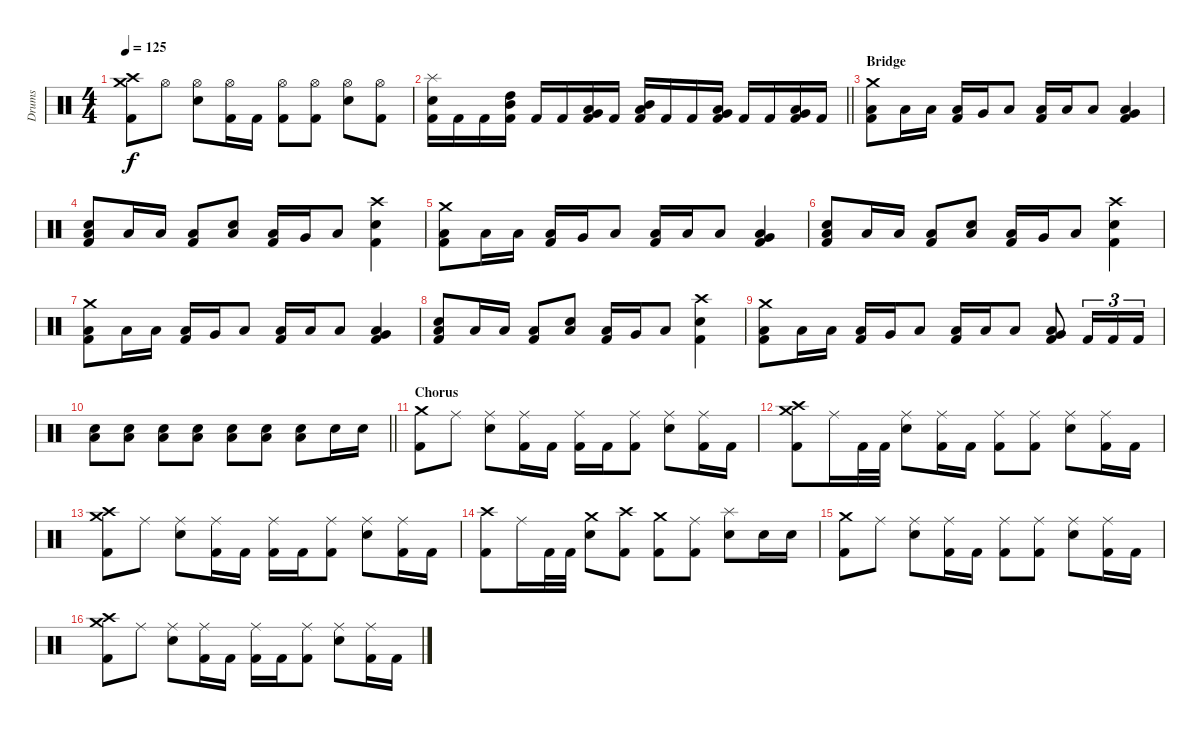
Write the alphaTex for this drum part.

\track ("Drums" "Drums") {instrument percussion}
\staff {score}
\articulation defaults
\ts (4 4)
\tempo 125
\clef neutral
\ks c
("Crash medium (hit)" "Crash high (hit)" "Kick (hit) 2").8{dy f} "Hi-Hat (open)".8 ("Hi-Hat (open)" "Electric Snare (hit)").8 ("Hi-Hat (open)" "Kick (hit) 2").16 "Kick (hit) 2".16 ("Hi-Hat (open)" "Kick (hit) 2").8 ("Hi-Hat (open)" "Kick (hit) 2").8 ("Hi-Hat (open)" "Electric Snare (hit)").8 ("Hi-Hat (open)" "Kick (hit) 2").8 |
\barLineRight lightlight
("Splash (hit)" "Electric Snare (hit)" "Kick (hit) 2").16 "Kick (hit) 2".16 "Kick (hit) 2".16 ("High Tom (hit)" "Mid Tom (hit)" "Kick (hit) 2").16 "Kick (hit) 2".16 "Kick (hit) 2".16 ("Low Tom (hit)" "Very Low Tom (hit)" "Kick (hit) 2").16 "Kick (hit) 2".16 ("Mid Tom (hit)" "Low Tom (hit)" "Kick (hit) 2").16 "Kick (hit) 2".16 "Kick (hit) 2".16 ("Low Tom (hit)" "Very Low Tom (hit)" "Kick (hit) 2").16 "Kick (hit) 2".16 "Kick (hit) 2".16 ("Very Low Tom (hit)" "Low Floor Tom (hit)" "Kick (hit) 2").16 "Kick (hit) 2".16 |
\section ("" "Bridge")
("Crash medium (hit)" "Low Floor Tom (hit)" "Kick (hit) 2").8{volume 14} "Low Floor Tom (hit)".16 "Low Tom (hit)".16 ("Low Floor Tom (hit)" "Kick (hit) 2").16 "Very Low Tom (hit)".16 "Low Floor Tom (hit)".8 ("Low Floor Tom (hit)" "Kick (hit) 2").16 "Low Tom (hit)".16 "Low Floor Tom (hit)".8 ("Very Low Tom (hit)" "Low Floor Tom (hit)" "Kick (hit) 2").4 |
("Low Floor Tom (hit)" "Electric Snare (hit)" "Kick (hit) 2").8{volume 16} "Low Floor Tom (hit)".16 "Low Tom (hit)".16 ("Low Floor Tom (hit)" "Kick (hit) 2").8 ("Low Floor Tom (hit)" "Electric Snare (hit)").8 ("Low Floor Tom (hit)" "Kick (hit) 2").16 "Very Low Tom (hit)".16 "Low Floor Tom (hit)".8 ("Crash high (hit)" "Electric Snare (hit)" "Kick (hit) 2").4 |
("Crash medium (hit)" "Low Floor Tom (hit)" "Kick (hit) 2").8{volume 14} "Low Floor Tom (hit)".16 "Low Tom (hit)".16 ("Low Floor Tom (hit)" "Kick (hit) 2").16 "Very Low Tom (hit)".16 "Low Floor Tom (hit)".8 ("Low Floor Tom (hit)" "Kick (hit) 2").16 "Low Tom (hit)".16 "Low Floor Tom (hit)".8 ("Very Low Tom (hit)" "Low Floor Tom (hit)" "Kick (hit) 2").4 |
("Low Floor Tom (hit)" "Electric Snare (hit)" "Kick (hit) 2").8{volume 16} "Low Floor Tom (hit)".16 "Low Tom (hit)".16 ("Low Floor Tom (hit)" "Kick (hit) 2").8 ("Low Floor Tom (hit)" "Electric Snare (hit)").8 ("Low Floor Tom (hit)" "Kick (hit) 2").16 "Very Low Tom (hit)".16 "Low Floor Tom (hit)".8 ("Crash high (hit)" "Electric Snare (hit)" "Kick (hit) 2").4 |
("Crash medium (hit)" "Low Floor Tom (hit)" "Kick (hit) 2").8{volume 14} "Low Floor Tom (hit)".16 "Low Tom (hit)".16 ("Low Floor Tom (hit)" "Kick (hit) 2").16 "Very Low Tom (hit)".16 "Low Floor Tom (hit)".8 ("Low Floor Tom (hit)" "Kick (hit) 2").16 "Low Tom (hit)".16 "Low Floor Tom (hit)".8 ("Very Low Tom (hit)" "Low Floor Tom (hit)" "Kick (hit) 2").4 |
("Low Floor Tom (hit)" "Electric Snare (hit)" "Kick (hit) 2").8{volume 16} "Low Floor Tom (hit)".16 "Low Tom (hit)".16 ("Low Floor Tom (hit)" "Kick (hit) 2").8 ("Low Floor Tom (hit)" "Electric Snare (hit)").8 ("Low Floor Tom (hit)" "Kick (hit) 2").16 "Very Low Tom (hit)".16 "Low Floor Tom (hit)".8 ("Crash high (hit)" "Electric Snare (hit)" "Kick (hit) 2").4 |
("Crash medium (hit)" "Low Floor Tom (hit)" "Kick (hit) 2").8{volume 14} "Low Floor Tom (hit)".16 "Low Tom (hit)".16 ("Low Floor Tom (hit)" "Kick (hit) 2").16 "Very Low Tom (hit)".16 "Low Floor Tom (hit)".8 ("Low Floor Tom (hit)" "Kick (hit) 2").16 "Low Tom (hit)".16 "Low Floor Tom (hit)".8 ("Very Low Tom (hit)" "Low Floor Tom (hit)" "Kick (hit) 2").8 "Kick (hit) 2".16{tu (3 2) volume 16} "Kick (hit) 2".16{tu (3 2)} "Kick (hit) 2".16{tu (3 2)} |
\barLineRight lightlight
("Low Floor Tom (hit)" "Electric Snare (hit)").8 ("Low Floor Tom (hit)" "Electric Snare (hit)").8 ("Low Floor Tom (hit)" "Electric Snare (hit)").8 ("Low Floor Tom (hit)" "Electric Snare (hit)").8 ("Low Floor Tom (hit)" "Electric Snare (hit)").8 ("Low Floor Tom (hit)" "Electric Snare (hit)").8 ("Low Floor Tom (hit)" "Electric Snare (hit)").8 "Electric Snare (hit)".16 "Electric Snare (hit)".16 |
\section ("" "Chorus")
("Crash medium (hit)" "Kick (hit) 2").8 "Ride (middle)".8 ("Ride (middle)" "Electric Snare (hit)").8 ("Ride (middle)" "Kick (hit) 2").16 "Kick (hit) 2".16 ("Ride (middle)" "Kick (hit) 2").16 "Kick (hit) 2".16 ("Ride (middle)" "Kick (hit) 2").8 ("Ride (middle)" "Electric Snare (hit)").8 ("Ride (middle)" "Kick (hit) 2").16 "Kick (hit) 2".16 |
("Crash medium (hit)" "Crash high (hit)" "Kick (hit) 2").8 "Ride (middle)".16 "Kick (hit) 2".32 "Kick (hit) 2".32 ("Ride (middle)" "Electric Snare (hit)").8 ("Ride (middle)" "Kick (hit) 2").16 "Kick (hit) 2".16 ("Ride (middle)" "Kick (hit) 2").8 ("Ride (middle)" "Kick (hit) 2").8 ("Ride (middle)" "Electric Snare (hit)").8 ("Ride (middle)" "Kick (hit) 2").16 "Kick (hit) 2".16 |
("Crash medium (hit)" "Crash high (hit)" "Kick (hit) 2").8 "Ride (middle)".8 ("Ride (middle)" "Electric Snare (hit)").8 ("Ride (middle)" "Kick (hit) 2").16 "Kick (hit) 2".16 ("Ride (middle)" "Kick (hit) 2").16 "Kick (hit) 2".16 ("Ride (middle)" "Kick (hit) 2").8 ("Ride (middle)" "Electric Snare (hit)").8 ("Ride (middle)" "Kick (hit) 2").16 "Kick (hit) 2".16 |
("Crash high (hit)" "Kick (hit) 2").8 "Ride (middle)".16 "Kick (hit) 2".32 "Kick (hit) 2".32 ("Crash medium (hit)" "Electric Snare (hit)").8 ("Crash high (hit)" "Kick (hit) 2").8 ("Crash medium (hit)" "Kick (hit) 2").8 ("Ride (middle)" "Kick (hit) 2").8 ("Splash (hit)" "Electric Snare (hit)").8 "Electric Snare (hit)".16 "Electric Snare (hit)".16 |
("Crash medium (hit)" "Kick (hit) 2").8 "Ride (middle)".8 ("Ride (middle)" "Electric Snare (hit)").8 ("Ride (middle)" "Kick (hit) 2").16 "Kick (hit) 2".16 ("Ride (middle)" "Kick (hit) 2").8 ("Ride (middle)" "Kick (hit) 2").8 ("Ride (middle)" "Electric Snare (hit)").8 ("Ride (middle)" "Kick (hit) 2").16 "Kick (hit) 2".16 |
("Crash medium (hit)" "Crash high (hit)" "Kick (hit) 2").8 "Ride (middle)".8 ("Ride (middle)" "Electric Snare (hit)").8 ("Ride (middle)" "Kick (hit) 2").16 "Kick (hit) 2".16 ("Ride (middle)" "Kick (hit) 2").16 "Kick (hit) 2".16 ("Ride (middle)" "Kick (hit) 2").8 ("Ride (middle)" "Electric Snare (hit)").8 ("Ride (middle)" "Kick (hit) 2").16 "Kick (hit) 2".16
